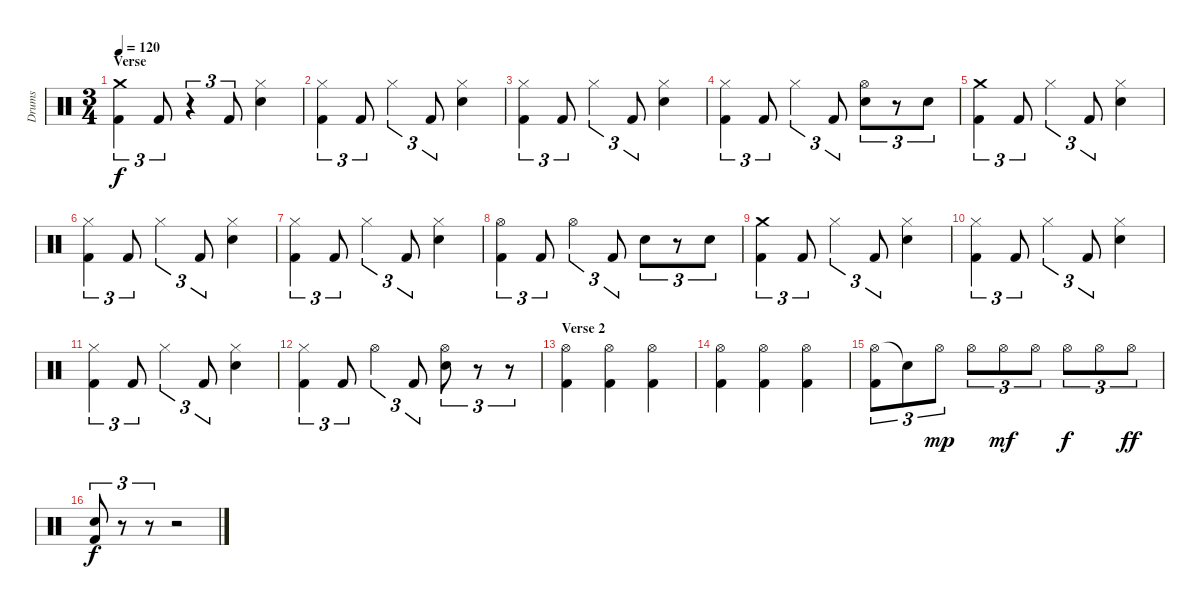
\track ("Drums" "Drums") {instrument percussion}
\staff {score}
\articulation defaults
\ts (3 4)
\section ("" "Verse")
\tempo 120
\clef neutral
\ks c
("Crash medium (hit)" "Kick (hit) 2").4{tu (3 2) dy f} "Kick (hit) 2".8{tu (3 2)} r.4{tu (3 2)} "Kick (hit) 2".8{tu (3 2)} ("Hi-Hat (closed)" "Snare (hit) 2").4 |
("Hi-Hat (closed)" "Kick (hit) 2").4{tu (3 2)} "Kick (hit) 2".8{tu (3 2)} "Hi-Hat (closed)".4{tu (3 2)} "Kick (hit) 2".8{tu (3 2)} ("Hi-Hat (closed)" "Snare (hit) 2").4 |
("Hi-Hat (closed)" "Kick (hit) 2").4{tu (3 2)} "Kick (hit) 2".8{tu (3 2)} "Hi-Hat (closed)".4{tu (3 2)} "Kick (hit) 2".8{tu (3 2)} ("Hi-Hat (closed)" "Snare (hit) 2").4 |
("Hi-Hat (closed)" "Kick (hit) 2").4{tu (3 2)} "Kick (hit) 2".8{tu (3 2)} "Hi-Hat (closed)".4{tu (3 2)} "Kick (hit) 2".8{tu (3 2)} ("Hi-Hat (open)" "Snare (hit) 2").8{tu (3 2)} r.8{tu (3 2)} "Snare (hit) 2".8{tu (3 2)} |
("Crash medium (hit)" "Kick (hit) 2").4{tu (3 2)} "Kick (hit) 2".8{tu (3 2)} "Hi-Hat (closed)".4{tu (3 2)} "Kick (hit) 2".8{tu (3 2)} ("Hi-Hat (closed)" "Snare (hit) 2").4 |
("Hi-Hat (closed)" "Kick (hit) 2").4{tu (3 2)} "Kick (hit) 2".8{tu (3 2)} "Hi-Hat (closed)".4{tu (3 2)} "Kick (hit) 2".8{tu (3 2)} ("Hi-Hat (closed)" "Snare (hit) 2").4 |
("Hi-Hat (closed)" "Kick (hit) 2").4{tu (3 2)} "Kick (hit) 2".8{tu (3 2)} "Hi-Hat (closed)".4{tu (3 2)} "Kick (hit) 2".8{tu (3 2)} ("Hi-Hat (closed)" "Snare (hit) 2").4 |
("Hi-Hat (open)" "Kick (hit) 2").4{tu (3 2)} "Kick (hit) 2".8{tu (3 2)} "Hi-Hat (open)".4{tu (3 2)} "Kick (hit) 2".8{tu (3 2)} "Snare (hit) 2".8{tu (3 2)} r.8{tu (3 2)} "Snare (hit) 2".8{tu (3 2)} |
("Crash medium (hit)" "Kick (hit) 2").4{tu (3 2)} "Kick (hit) 2".8{tu (3 2)} "Hi-Hat (closed)".4{tu (3 2)} "Kick (hit) 2".8{tu (3 2)} ("Hi-Hat (closed)" "Snare (hit) 2").4 |
("Hi-Hat (closed)" "Kick (hit) 2").4{tu (3 2)} "Kick (hit) 2".8{tu (3 2)} "Hi-Hat (closed)".4{tu (3 2)} "Kick (hit) 2".8{tu (3 2)} ("Hi-Hat (closed)" "Snare (hit) 2").4 |
("Hi-Hat (closed)" "Kick (hit) 2").4{tu (3 2)} "Kick (hit) 2".8{tu (3 2)} "Hi-Hat (closed)".4{tu (3 2)} "Kick (hit) 2".8{tu (3 2)} ("Hi-Hat (closed)" "Snare (hit) 2").4 |
("Hi-Hat (closed)" "Kick (hit) 2").4{tu (3 2)} "Kick (hit) 2".8{tu (3 2)} "Hi-Hat (open)".4{tu (3 2)} "Kick (hit) 2".8{tu (3 2)} ("Hi-Hat (open)" "Snare (hit) 2").8{tu (3 2)} r.8{tu (3 2)} r.8{tu (3 2)} |
\section ("" "Verse 2")
("Hi-Hat (open)" "Kick (hit) 2").4 ("Hi-Hat (open)" "Kick (hit) 2").4 ("Hi-Hat (open)" "Kick (hit) 2").4 |
("Hi-Hat (open)" "Kick (hit) 2").4 ("Hi-Hat (open)" "Kick (hit) 2").4 ("Hi-Hat (open)" "Kick (hit) 2").4 |
("Hi-Hat (open)" "Kick (hit) 2").8{tu (3 2)} "Snare (hit)"{t}.8{tu (3 2)} "Hi-Hat (open)".8{tu (3 2) dy mp} "Hi-Hat (open)".8{tu (3 2)} "Hi-Hat (open)".8{tu (3 2) dy mf} "Hi-Hat (open)".8{tu (3 2)} "Hi-Hat (open)".8{tu (3 2) dy f} "Hi-Hat (open)".8{tu (3 2)} "Hi-Hat (open)".8{tu (3 2) dy ff} |
("Snare (hit) 2" "Kick (hit) 2").8{tu (3 2) dy f} r.8{tu (3 2)} r.8{tu (3 2)} r.2
